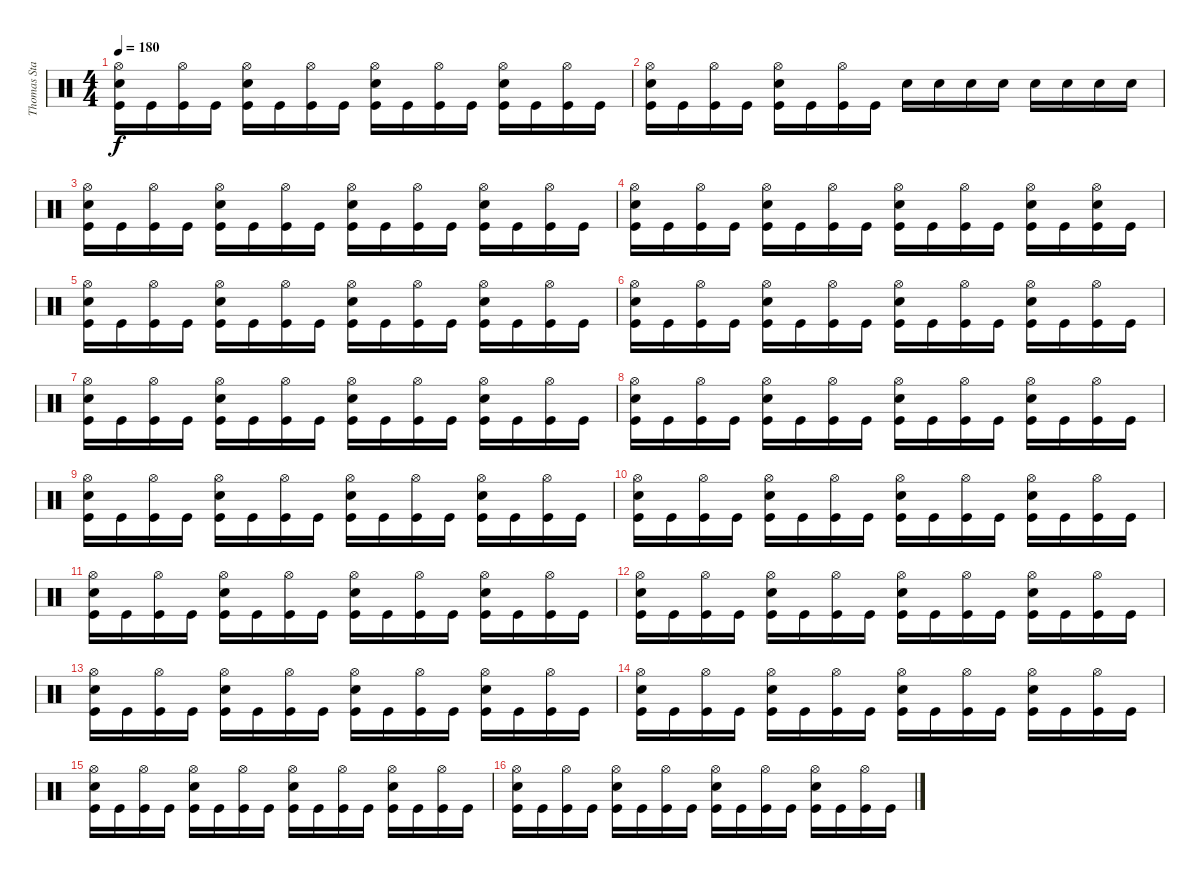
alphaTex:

\track ("Thomas Stauch" "Thomas Sta") {instrument percussion}
\staff {score}
\articulation defaults
\ts (4 4)
\tempo 180
\clef neutral
\ks c
("Kick (hit)" "Snare (hit) 2" "Hi-Hat (open)").16{dy f} "Kick (hit)".16 ("Kick (hit)" "Hi-Hat (open)").16 "Kick (hit)".16 ("Kick (hit)" "Snare (hit) 2" "Hi-Hat (open)").16 "Kick (hit)".16 ("Kick (hit)" "Hi-Hat (open)").16 "Kick (hit)".16 ("Kick (hit)" "Snare (hit) 2" "Hi-Hat (open)").16 "Kick (hit)".16 ("Kick (hit)" "Hi-Hat (open)").16 "Kick (hit)".16 ("Kick (hit)" "Snare (hit) 2" "Hi-Hat (open)").16 "Kick (hit)".16 ("Kick (hit)" "Hi-Hat (open)").16 "Kick (hit)".16 |
("Kick (hit)" "Snare (hit) 2" "Hi-Hat (open)").16 "Kick (hit)".16 ("Kick (hit)" "Hi-Hat (open)").16 "Kick (hit)".16 ("Kick (hit)" "Snare (hit) 2" "Hi-Hat (open)").16 "Kick (hit)".16 ("Kick (hit)" "Hi-Hat (open)").16 "Kick (hit)".16 "Snare (hit) 2".16 "Snare (hit) 2".16 "Snare (hit) 2".16 "Snare (hit) 2".16 "Snare (hit) 2".16 "Snare (hit) 2".16 "Snare (hit) 2".16 "Snare (hit) 2".16 |
("Kick (hit)" "Snare (hit) 2" "Hi-Hat (open)").16 "Kick (hit)".16 ("Kick (hit)" "Hi-Hat (open)").16 "Kick (hit)".16 ("Kick (hit)" "Snare (hit) 2" "Hi-Hat (open)").16 "Kick (hit)".16 ("Kick (hit)" "Hi-Hat (open)").16 "Kick (hit)".16 ("Kick (hit)" "Snare (hit) 2" "Hi-Hat (open)").16 "Kick (hit)".16 ("Kick (hit)" "Hi-Hat (open)").16 "Kick (hit)".16 ("Kick (hit)" "Snare (hit) 2" "Hi-Hat (open)").16 "Kick (hit)".16 ("Kick (hit)" "Hi-Hat (open)").16 "Kick (hit)".16 |
("Kick (hit)" "Snare (hit) 2" "Hi-Hat (open)").16 "Kick (hit)".16 ("Kick (hit)" "Hi-Hat (open)").16 "Kick (hit)".16 ("Kick (hit)" "Snare (hit) 2" "Hi-Hat (open)").16 "Kick (hit)".16 ("Kick (hit)" "Hi-Hat (open)").16 "Kick (hit)".16 ("Kick (hit)" "Snare (hit) 2" "Hi-Hat (open)").16 "Kick (hit)".16 ("Kick (hit)" "Hi-Hat (open)").16 "Kick (hit)".16 ("Kick (hit)" "Snare (hit) 2" "Hi-Hat (open)").16 "Kick (hit)".16 ("Kick (hit)" "Snare (hit) 2" "Hi-Hat (open)").16 "Kick (hit)".16 |
("Kick (hit)" "Snare (hit) 2" "Hi-Hat (open)").16 "Kick (hit)".16 ("Kick (hit)" "Hi-Hat (open)").16 "Kick (hit)".16 ("Kick (hit)" "Snare (hit) 2" "Hi-Hat (open)").16 "Kick (hit)".16 ("Kick (hit)" "Hi-Hat (open)").16 "Kick (hit)".16 ("Kick (hit)" "Snare (hit) 2" "Hi-Hat (open)").16 "Kick (hit)".16 ("Kick (hit)" "Hi-Hat (open)").16 "Kick (hit)".16 ("Kick (hit)" "Snare (hit) 2" "Hi-Hat (open)").16 "Kick (hit)".16 ("Kick (hit)" "Hi-Hat (open)").16 "Kick (hit)".16 |
("Kick (hit)" "Snare (hit) 2" "Hi-Hat (open)").16 "Kick (hit)".16 ("Kick (hit)" "Hi-Hat (open)").16 "Kick (hit)".16 ("Kick (hit)" "Snare (hit) 2" "Hi-Hat (open)").16 "Kick (hit)".16 ("Kick (hit)" "Hi-Hat (open)").16 "Kick (hit)".16 ("Kick (hit)" "Snare (hit) 2" "Hi-Hat (open)").16 "Kick (hit)".16 ("Kick (hit)" "Hi-Hat (open)").16 "Kick (hit)".16 ("Kick (hit)" "Snare (hit) 2" "Hi-Hat (open)").16 "Kick (hit)".16 ("Kick (hit)" "Hi-Hat (open)").16 "Kick (hit)".16 |
("Kick (hit)" "Snare (hit) 2" "Hi-Hat (open)").16 "Kick (hit)".16 ("Kick (hit)" "Hi-Hat (open)").16 "Kick (hit)".16 ("Kick (hit)" "Snare (hit) 2" "Hi-Hat (open)").16 "Kick (hit)".16 ("Kick (hit)" "Hi-Hat (open)").16 "Kick (hit)".16 ("Kick (hit)" "Snare (hit) 2" "Hi-Hat (open)").16 "Kick (hit)".16 ("Kick (hit)" "Hi-Hat (open)").16 "Kick (hit)".16 ("Kick (hit)" "Snare (hit) 2" "Hi-Hat (open)").16 "Kick (hit)".16 ("Kick (hit)" "Hi-Hat (open)").16 "Kick (hit)".16 |
("Kick (hit)" "Snare (hit) 2" "Hi-Hat (open)").16 "Kick (hit)".16 ("Kick (hit)" "Hi-Hat (open)").16 "Kick (hit)".16 ("Kick (hit)" "Snare (hit) 2" "Hi-Hat (open)").16 "Kick (hit)".16 ("Kick (hit)" "Hi-Hat (open)").16 "Kick (hit)".16 ("Kick (hit)" "Snare (hit) 2" "Hi-Hat (open)").16 "Kick (hit)".16 ("Kick (hit)" "Hi-Hat (open)").16 "Kick (hit)".16 ("Kick (hit)" "Snare (hit) 2" "Hi-Hat (open)").16 "Kick (hit)".16 ("Kick (hit)" "Hi-Hat (open)").16 "Kick (hit)".16 |
("Kick (hit)" "Snare (hit) 2" "Hi-Hat (open)").16 "Kick (hit)".16 ("Kick (hit)" "Hi-Hat (open)").16 "Kick (hit)".16 ("Kick (hit)" "Snare (hit) 2" "Hi-Hat (open)").16 "Kick (hit)".16 ("Kick (hit)" "Hi-Hat (open)").16 "Kick (hit)".16 ("Kick (hit)" "Snare (hit) 2" "Hi-Hat (open)").16 "Kick (hit)".16 ("Kick (hit)" "Hi-Hat (open)").16 "Kick (hit)".16 ("Kick (hit)" "Snare (hit) 2" "Hi-Hat (open)").16 "Kick (hit)".16 ("Kick (hit)" "Hi-Hat (open)").16 "Kick (hit)".16 |
("Kick (hit)" "Snare (hit) 2" "Hi-Hat (open)").16 "Kick (hit)".16 ("Kick (hit)" "Hi-Hat (open)").16 "Kick (hit)".16 ("Kick (hit)" "Snare (hit) 2" "Hi-Hat (open)").16 "Kick (hit)".16 ("Kick (hit)" "Hi-Hat (open)").16 "Kick (hit)".16 ("Kick (hit)" "Snare (hit) 2" "Hi-Hat (open)").16 "Kick (hit)".16 ("Kick (hit)" "Hi-Hat (open)").16 "Kick (hit)".16 ("Kick (hit)" "Snare (hit) 2" "Hi-Hat (open)").16 "Kick (hit)".16 ("Kick (hit)" "Hi-Hat (open)").16 "Kick (hit)".16 |
("Kick (hit)" "Snare (hit) 2" "Hi-Hat (open)").16 "Kick (hit)".16 ("Kick (hit)" "Hi-Hat (open)").16 "Kick (hit)".16 ("Kick (hit)" "Snare (hit) 2" "Hi-Hat (open)").16 "Kick (hit)".16 ("Kick (hit)" "Hi-Hat (open)").16 "Kick (hit)".16 ("Kick (hit)" "Snare (hit) 2" "Hi-Hat (open)").16 "Kick (hit)".16 ("Kick (hit)" "Hi-Hat (open)").16 "Kick (hit)".16 ("Kick (hit)" "Snare (hit) 2" "Hi-Hat (open)").16 "Kick (hit)".16 ("Kick (hit)" "Hi-Hat (open)").16 "Kick (hit)".16 |
("Kick (hit)" "Snare (hit) 2" "Hi-Hat (open)").16 "Kick (hit)".16 ("Kick (hit)" "Hi-Hat (open)").16 "Kick (hit)".16 ("Kick (hit)" "Snare (hit) 2" "Hi-Hat (open)").16 "Kick (hit)".16 ("Kick (hit)" "Hi-Hat (open)").16 "Kick (hit)".16 ("Kick (hit)" "Snare (hit) 2" "Hi-Hat (open)").16 "Kick (hit)".16 ("Kick (hit)" "Hi-Hat (open)").16 "Kick (hit)".16 ("Kick (hit)" "Snare (hit) 2" "Hi-Hat (open)").16 "Kick (hit)".16 ("Kick (hit)" "Hi-Hat (open)").16 "Kick (hit)".16 |
("Kick (hit)" "Snare (hit) 2" "Hi-Hat (open)").16 "Kick (hit)".16 ("Kick (hit)" "Hi-Hat (open)").16 "Kick (hit)".16 ("Kick (hit)" "Snare (hit) 2" "Hi-Hat (open)").16 "Kick (hit)".16 ("Kick (hit)" "Hi-Hat (open)").16 "Kick (hit)".16 ("Kick (hit)" "Snare (hit) 2" "Hi-Hat (open)").16 "Kick (hit)".16 ("Kick (hit)" "Hi-Hat (open)").16 "Kick (hit)".16 ("Kick (hit)" "Snare (hit) 2" "Hi-Hat (open)").16 "Kick (hit)".16 ("Kick (hit)" "Hi-Hat (open)").16 "Kick (hit)".16 |
("Kick (hit)" "Snare (hit) 2" "Hi-Hat (open)").16 "Kick (hit)".16 ("Kick (hit)" "Hi-Hat (open)").16 "Kick (hit)".16 ("Kick (hit)" "Snare (hit) 2" "Hi-Hat (open)").16 "Kick (hit)".16 ("Kick (hit)" "Hi-Hat (open)").16 "Kick (hit)".16 ("Kick (hit)" "Snare (hit) 2" "Hi-Hat (open)").16 "Kick (hit)".16 ("Kick (hit)" "Hi-Hat (open)").16 "Kick (hit)".16 ("Kick (hit)" "Snare (hit) 2" "Hi-Hat (open)").16 "Kick (hit)".16 ("Kick (hit)" "Hi-Hat (open)").16 "Kick (hit)".16 |
("Kick (hit)" "Snare (hit) 2" "Hi-Hat (open)").16 "Kick (hit)".16 ("Kick (hit)" "Hi-Hat (open)").16 "Kick (hit)".16 ("Kick (hit)" "Snare (hit) 2" "Hi-Hat (open)").16 "Kick (hit)".16 ("Kick (hit)" "Hi-Hat (open)").16 "Kick (hit)".16 ("Kick (hit)" "Snare (hit) 2" "Hi-Hat (open)").16 "Kick (hit)".16 ("Kick (hit)" "Hi-Hat (open)").16 "Kick (hit)".16 ("Kick (hit)" "Snare (hit) 2" "Hi-Hat (open)").16 "Kick (hit)".16 ("Kick (hit)" "Hi-Hat (open)").16 "Kick (hit)".16 |
("Kick (hit)" "Snare (hit) 2" "Hi-Hat (open)").16 "Kick (hit)".16 ("Kick (hit)" "Hi-Hat (open)").16 "Kick (hit)".16 ("Kick (hit)" "Snare (hit) 2" "Hi-Hat (open)").16 "Kick (hit)".16 ("Kick (hit)" "Hi-Hat (open)").16 "Kick (hit)".16 ("Kick (hit)" "Snare (hit) 2" "Hi-Hat (open)").16 "Kick (hit)".16 ("Kick (hit)" "Hi-Hat (open)").16 "Kick (hit)".16 ("Kick (hit)" "Snare (hit) 2" "Hi-Hat (open)").16 "Kick (hit)".16 ("Kick (hit)" "Hi-Hat (open)").16 "Kick (hit)".16
